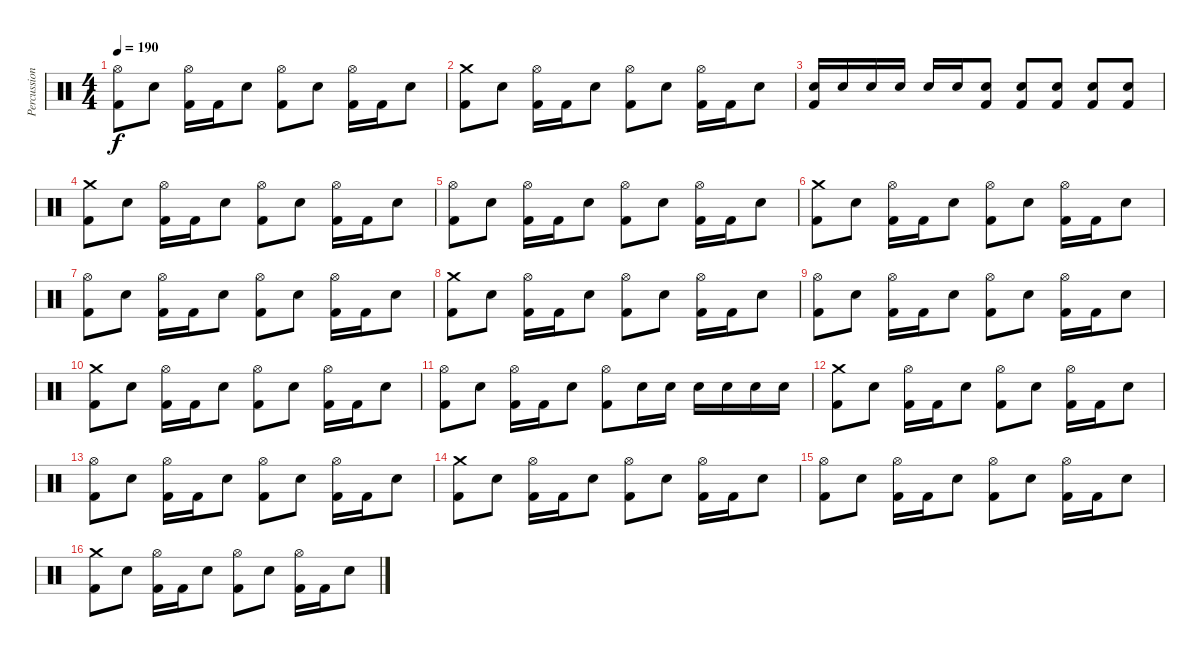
\track ("Percussion" "Percussion") {instrument percussion}
\staff {score}
\articulation defaults
\ts (4 4)
\tempo 190
\clef neutral
\ks c
("Hi-Hat (open)" "Kick (hit) 2").8{dy f} "Snare (hit) 2".8 ("Hi-Hat (open)" "Kick (hit) 2").16 "Kick (hit) 2".16 "Snare (hit) 2".8 ("Hi-Hat (open)" "Kick (hit) 2").8 "Snare (hit) 2".8 ("Hi-Hat (open)" "Kick (hit) 2").16 "Kick (hit) 2".16 "Snare (hit) 2".8 |
("Crash medium (hit)" "Kick (hit) 2").8 "Snare (hit) 2".8 ("Hi-Hat (open)" "Kick (hit) 2").16 "Kick (hit) 2".16 "Snare (hit) 2".8 ("Hi-Hat (open)" "Kick (hit) 2").8 "Snare (hit) 2".8 ("Hi-Hat (open)" "Kick (hit) 2").16 "Kick (hit) 2".16 "Snare (hit) 2".8 |
("Snare (hit) 2" "Kick (hit) 2").16 "Snare (hit) 2".16 "Snare (hit) 2".16 "Snare (hit) 2".16 "Snare (hit) 2".16 "Snare (hit) 2".16 ("Snare (hit) 2" "Kick (hit) 2").8 ("Snare (hit) 2" "Kick (hit) 2").8 ("Snare (hit) 2" "Kick (hit) 2").8 ("Snare (hit) 2" "Kick (hit) 2").8 ("Snare (hit) 2" "Kick (hit) 2").8 |
("Crash medium (hit)" "Kick (hit) 2").8 "Snare (hit) 2".8 ("Hi-Hat (open)" "Kick (hit) 2").16 "Kick (hit) 2".16 "Snare (hit) 2".8 ("Hi-Hat (open)" "Kick (hit) 2").8 "Snare (hit) 2".8 ("Hi-Hat (open)" "Kick (hit) 2").16 "Kick (hit) 2".16 "Snare (hit) 2".8 |
("Hi-Hat (open)" "Kick (hit) 2").8 "Snare (hit) 2".8 ("Hi-Hat (open)" "Kick (hit) 2").16 "Kick (hit) 2".16 "Snare (hit) 2".8 ("Hi-Hat (open)" "Kick (hit) 2").8 "Snare (hit) 2".8 ("Hi-Hat (open)" "Kick (hit) 2").16 "Kick (hit) 2".16 "Snare (hit) 2".8 |
("Crash medium (hit)" "Kick (hit) 2").8 "Snare (hit) 2".8 ("Hi-Hat (open)" "Kick (hit) 2").16 "Kick (hit) 2".16 "Snare (hit) 2".8 ("Hi-Hat (open)" "Kick (hit) 2").8 "Snare (hit) 2".8 ("Hi-Hat (open)" "Kick (hit) 2").16 "Kick (hit) 2".16 "Snare (hit) 2".8 |
("Hi-Hat (open)" "Kick (hit) 2").8 "Snare (hit) 2".8 ("Hi-Hat (open)" "Kick (hit) 2").16 "Kick (hit) 2".16 "Snare (hit) 2".8 ("Hi-Hat (open)" "Kick (hit) 2").8 "Snare (hit) 2".8 ("Hi-Hat (open)" "Kick (hit) 2").16 "Kick (hit) 2".16 "Snare (hit) 2".8 |
("Crash medium (hit)" "Kick (hit) 2").8 "Snare (hit) 2".8 ("Hi-Hat (open)" "Kick (hit) 2").16 "Kick (hit) 2".16 "Snare (hit) 2".8 ("Hi-Hat (open)" "Kick (hit) 2").8 "Snare (hit) 2".8 ("Hi-Hat (open)" "Kick (hit) 2").16 "Kick (hit) 2".16 "Snare (hit) 2".8 |
("Hi-Hat (open)" "Kick (hit) 2").8 "Snare (hit) 2".8 ("Hi-Hat (open)" "Kick (hit) 2").16 "Kick (hit) 2".16 "Snare (hit) 2".8 ("Hi-Hat (open)" "Kick (hit) 2").8 "Snare (hit) 2".8 ("Hi-Hat (open)" "Kick (hit) 2").16 "Kick (hit) 2".16 "Snare (hit) 2".8 |
("Crash medium (hit)" "Kick (hit) 2").8 "Snare (hit) 2".8 ("Hi-Hat (open)" "Kick (hit) 2").16 "Kick (hit) 2".16 "Snare (hit) 2".8 ("Hi-Hat (open)" "Kick (hit) 2").8 "Snare (hit) 2".8 ("Hi-Hat (open)" "Kick (hit) 2").16 "Kick (hit) 2".16 "Snare (hit) 2".8 |
("Hi-Hat (open)" "Kick (hit) 2").8 "Snare (hit) 2".8 ("Hi-Hat (open)" "Kick (hit) 2").16 "Kick (hit) 2".16 "Snare (hit) 2".8 ("Hi-Hat (open)" "Kick (hit) 2").8 "Snare (hit) 2".16 "Snare (hit) 2".16 "Snare (hit) 2".16 "Snare (hit) 2".16 "Snare (hit) 2".16 "Snare (hit) 2".16 |
("Crash medium (hit)" "Kick (hit) 2").8 "Snare (hit) 2".8 ("Hi-Hat (open)" "Kick (hit) 2").16 "Kick (hit) 2".16 "Snare (hit) 2".8 ("Hi-Hat (open)" "Kick (hit) 2").8 "Snare (hit) 2".8 ("Hi-Hat (open)" "Kick (hit) 2").16 "Kick (hit) 2".16 "Snare (hit) 2".8 |
("Hi-Hat (open)" "Kick (hit) 2").8 "Snare (hit) 2".8 ("Hi-Hat (open)" "Kick (hit) 2").16 "Kick (hit) 2".16 "Snare (hit) 2".8 ("Hi-Hat (open)" "Kick (hit) 2").8 "Snare (hit) 2".8 ("Hi-Hat (open)" "Kick (hit) 2").16 "Kick (hit) 2".16 "Snare (hit) 2".8 |
("Crash medium (hit)" "Kick (hit) 2").8 "Snare (hit) 2".8 ("Hi-Hat (open)" "Kick (hit) 2").16 "Kick (hit) 2".16 "Snare (hit) 2".8 ("Hi-Hat (open)" "Kick (hit) 2").8 "Snare (hit) 2".8 ("Hi-Hat (open)" "Kick (hit) 2").16 "Kick (hit) 2".16 "Snare (hit) 2".8 |
("Hi-Hat (open)" "Kick (hit) 2").8 "Snare (hit) 2".8 ("Hi-Hat (open)" "Kick (hit) 2").16 "Kick (hit) 2".16 "Snare (hit) 2".8 ("Hi-Hat (open)" "Kick (hit) 2").8 "Snare (hit) 2".8 ("Hi-Hat (open)" "Kick (hit) 2").16 "Kick (hit) 2".16 "Snare (hit) 2".8 |
("Crash medium (hit)" "Kick (hit) 2").8 "Snare (hit) 2".8 ("Hi-Hat (open)" "Kick (hit) 2").16 "Kick (hit) 2".16 "Snare (hit) 2".8 ("Hi-Hat (open)" "Kick (hit) 2").8 "Snare (hit) 2".8 ("Hi-Hat (open)" "Kick (hit) 2").16 "Kick (hit) 2".16 "Snare (hit) 2".8
